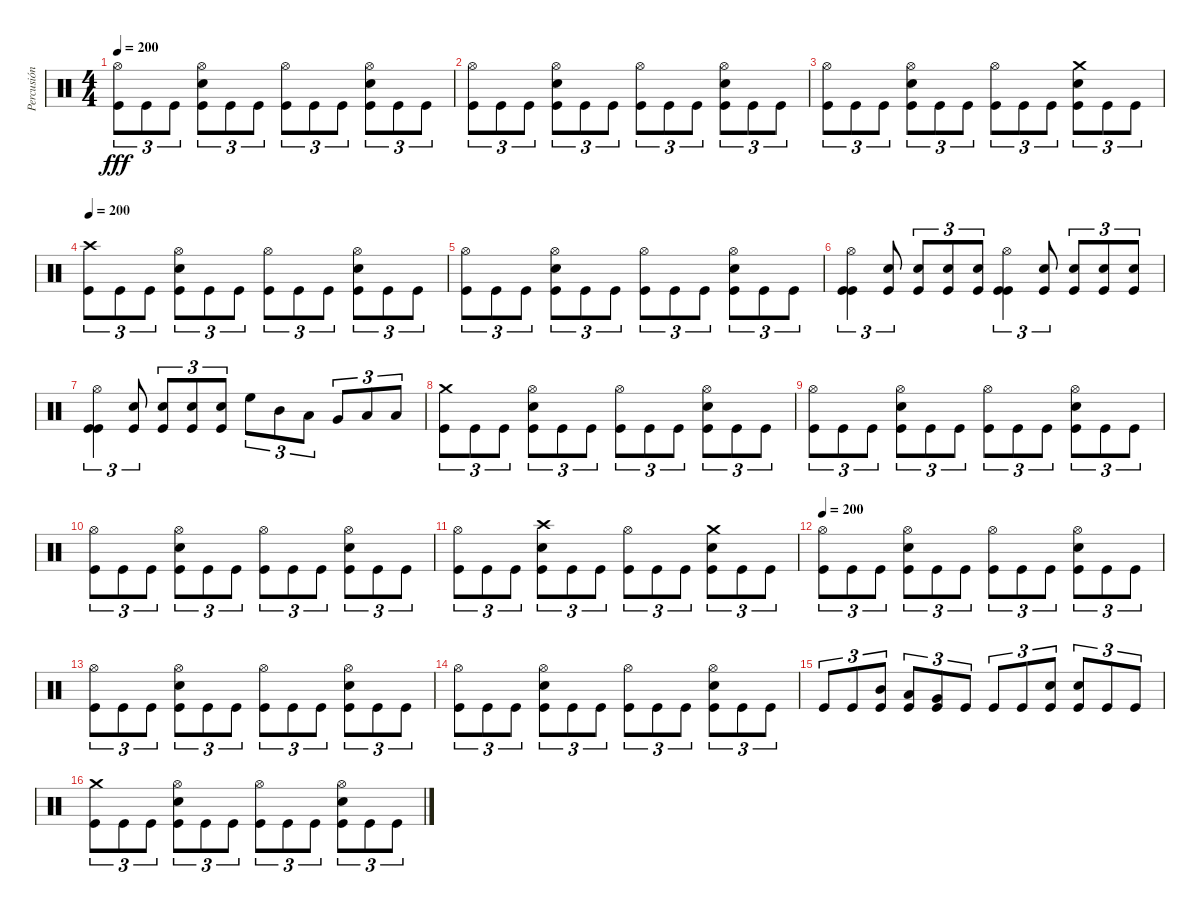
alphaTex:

\track ("Percusión" "Percusión") {instrument percussion}
\staff {score}
\articulation defaults
\ts (4 4)
\tempo 200
\clef neutral
\ks c
("Hi-Hat (open)" "Kick (hit)").8{tu (3 2) dy fff} "Kick (hit)".8{tu (3 2)} "Kick (hit)".8{tu (3 2)} ("Hi-Hat (open)" "Electric Snare (hit)" "Kick (hit)").8{tu (3 2)} "Kick (hit)".8{tu (3 2)} "Kick (hit)".8{tu (3 2)} ("Hi-Hat (open)" "Kick (hit)").8{tu (3 2)} "Kick (hit)".8{tu (3 2)} "Kick (hit)".8{tu (3 2)} ("Hi-Hat (open)" "Electric Snare (hit)" "Kick (hit)").8{tu (3 2)} "Kick (hit)".8{tu (3 2)} "Kick (hit)".8{tu (3 2)} |
("Hi-Hat (open)" "Kick (hit)").8{tu (3 2)} "Kick (hit)".8{tu (3 2)} "Kick (hit)".8{tu (3 2)} ("Hi-Hat (open)" "Electric Snare (hit)" "Kick (hit)").8{tu (3 2)} "Kick (hit)".8{tu (3 2)} "Kick (hit)".8{tu (3 2)} ("Hi-Hat (open)" "Kick (hit)").8{tu (3 2)} "Kick (hit)".8{tu (3 2)} "Kick (hit)".8{tu (3 2)} ("Hi-Hat (open)" "Electric Snare (hit)" "Kick (hit)").8{tu (3 2)} "Kick (hit)".8{tu (3 2)} "Kick (hit)".8{tu (3 2)} |
("Hi-Hat (open)" "Kick (hit)").8{tu (3 2)} "Kick (hit)".8{tu (3 2)} "Kick (hit)".8{tu (3 2)} ("Hi-Hat (open)" "Electric Snare (hit)" "Kick (hit)").8{tu (3 2)} "Kick (hit)".8{tu (3 2)} "Kick (hit)".8{tu (3 2)} ("Hi-Hat (open)" "Kick (hit)").8{tu (3 2)} "Kick (hit)".8{tu (3 2)} "Kick (hit)".8{tu (3 2)} ("Crash medium (hit)" "Electric Snare (hit)" "Kick (hit)").8{tu (3 2)} "Kick (hit)".8{tu (3 2)} "Kick (hit)".8{tu (3 2)} |
\tempo 200
("Crash high (hit)" "Kick (hit)").8{tu (3 2)} "Kick (hit)".8{tu (3 2)} "Kick (hit)".8{tu (3 2)} ("Hi-Hat (open)" "Electric Snare (hit)" "Kick (hit)").8{tu (3 2)} "Kick (hit)".8{tu (3 2)} "Kick (hit)".8{tu (3 2)} ("Hi-Hat (open)" "Kick (hit)").8{tu (3 2)} "Kick (hit)".8{tu (3 2)} "Kick (hit)".8{tu (3 2)} ("Hi-Hat (open)" "Electric Snare (hit)" "Kick (hit)").8{tu (3 2)} "Kick (hit)".8{tu (3 2)} "Kick (hit)".8{tu (3 2)} |
("Hi-Hat (open)" "Kick (hit)").8{tu (3 2)} "Kick (hit)".8{tu (3 2)} "Kick (hit)".8{tu (3 2)} ("Hi-Hat (open)" "Electric Snare (hit)" "Kick (hit)").8{tu (3 2)} "Kick (hit)".8{tu (3 2)} "Kick (hit)".8{tu (3 2)} ("Hi-Hat (open)" "Kick (hit)").8{tu (3 2)} "Kick (hit)".8{tu (3 2)} "Kick (hit)".8{tu (3 2)} ("Hi-Hat (open)" "Electric Snare (hit)" "Kick (hit)").8{tu (3 2)} "Kick (hit)".8{tu (3 2)} "Kick (hit)".8{tu (3 2)} |
("Hi-Hat (open)" "Kick (hit)" "Kick (hit)").4{tu (3 2)} ("Electric Snare (hit)" "Kick (hit)").8{tu (3 2)} ("Electric Snare (hit)" "Kick (hit)").8{tu (3 2)} ("Electric Snare (hit)" "Kick (hit)").8{tu (3 2)} ("Electric Snare (hit)" "Kick (hit)").8{tu (3 2)} ("Hi-Hat (open)" "Kick (hit)" "Kick (hit)").4{tu (3 2)} ("Electric Snare (hit)" "Kick (hit)").8{tu (3 2)} ("Electric Snare (hit)" "Kick (hit)").8{tu (3 2)} ("Electric Snare (hit)" "Kick (hit)").8{tu (3 2)} ("Electric Snare (hit)" "Kick (hit)").8{tu (3 2)} |
("Hi-Hat (open)" "Kick (hit)" "Kick (hit)").4{tu (3 2)} ("Electric Snare (hit)" "Kick (hit)").8{tu (3 2)} ("Electric Snare (hit)" "Kick (hit)").8{tu (3 2)} ("Electric Snare (hit)" "Kick (hit)").8{tu (3 2)} ("Electric Snare (hit)" "Kick (hit)").8{tu (3 2)} "High Floor Tom (hit)".8{tu (3 2)} "Mid Tom (hit)".8{tu (3 2)} "Low Tom (hit)".8{tu (3 2)} "Very Low Tom (hit)".8{tu (3 2)} "Low Floor Tom (hit)".8{tu (3 2)} "Low Floor Tom (hit)".8{tu (3 2)} |
("Crash medium (hit)" "Kick (hit)").8{tu (3 2)} "Kick (hit)".8{tu (3 2)} "Kick (hit)".8{tu (3 2)} ("Hi-Hat (open)" "Electric Snare (hit)" "Kick (hit)").8{tu (3 2)} "Kick (hit)".8{tu (3 2)} "Kick (hit)".8{tu (3 2)} ("Hi-Hat (open)" "Kick (hit)").8{tu (3 2)} "Kick (hit)".8{tu (3 2)} "Kick (hit)".8{tu (3 2)} ("Hi-Hat (open)" "Electric Snare (hit)" "Kick (hit)").8{tu (3 2)} "Kick (hit)".8{tu (3 2)} "Kick (hit)".8{tu (3 2)} |
("Hi-Hat (open)" "Kick (hit)").8{tu (3 2)} "Kick (hit)".8{tu (3 2)} "Kick (hit)".8{tu (3 2)} ("Hi-Hat (open)" "Electric Snare (hit)" "Kick (hit)").8{tu (3 2)} "Kick (hit)".8{tu (3 2)} "Kick (hit)".8{tu (3 2)} ("Hi-Hat (open)" "Kick (hit)").8{tu (3 2)} "Kick (hit)".8{tu (3 2)} "Kick (hit)".8{tu (3 2)} ("Hi-Hat (open)" "Electric Snare (hit)" "Kick (hit)").8{tu (3 2)} "Kick (hit)".8{tu (3 2)} "Kick (hit)".8{tu (3 2)} |
("Hi-Hat (open)" "Kick (hit)").8{tu (3 2)} "Kick (hit)".8{tu (3 2)} "Kick (hit)".8{tu (3 2)} ("Hi-Hat (open)" "Electric Snare (hit)" "Kick (hit)").8{tu (3 2)} "Kick (hit)".8{tu (3 2)} "Kick (hit)".8{tu (3 2)} ("Hi-Hat (open)" "Kick (hit)").8{tu (3 2)} "Kick (hit)".8{tu (3 2)} "Kick (hit)".8{tu (3 2)} ("Hi-Hat (open)" "Electric Snare (hit)" "Kick (hit)").8{tu (3 2)} "Kick (hit)".8{tu (3 2)} "Kick (hit)".8{tu (3 2)} |
("Hi-Hat (open)" "Kick (hit)").8{tu (3 2)} "Kick (hit)".8{tu (3 2)} "Kick (hit)".8{tu (3 2)} ("Crash high (hit)" "Electric Snare (hit)" "Kick (hit)").8{tu (3 2)} "Kick (hit)".8{tu (3 2)} "Kick (hit)".8{tu (3 2)} ("Hi-Hat (open)" "Kick (hit)").8{tu (3 2)} "Kick (hit)".8{tu (3 2)} "Kick (hit)".8{tu (3 2)} ("Crash medium (hit)" "Electric Snare (hit)" "Kick (hit)").8{tu (3 2)} "Kick (hit)".8{tu (3 2)} "Kick (hit)".8{tu (3 2)} |
\tempo 200
("Hi-Hat (open)" "Kick (hit)").8{tu (3 2)} "Kick (hit)".8{tu (3 2)} "Kick (hit)".8{tu (3 2)} ("Hi-Hat (open)" "Electric Snare (hit)" "Kick (hit)").8{tu (3 2)} "Kick (hit)".8{tu (3 2)} "Kick (hit)".8{tu (3 2)} ("Hi-Hat (open)" "Kick (hit)").8{tu (3 2)} "Kick (hit)".8{tu (3 2)} "Kick (hit)".8{tu (3 2)} ("Hi-Hat (open)" "Electric Snare (hit)" "Kick (hit)").8{tu (3 2)} "Kick (hit)".8{tu (3 2)} "Kick (hit)".8{tu (3 2)} |
("Hi-Hat (open)" "Kick (hit)").8{tu (3 2)} "Kick (hit)".8{tu (3 2)} "Kick (hit)".8{tu (3 2)} ("Hi-Hat (open)" "Electric Snare (hit)" "Kick (hit)").8{tu (3 2)} "Kick (hit)".8{tu (3 2)} "Kick (hit)".8{tu (3 2)} ("Hi-Hat (open)" "Kick (hit)").8{tu (3 2)} "Kick (hit)".8{tu (3 2)} "Kick (hit)".8{tu (3 2)} ("Hi-Hat (open)" "Electric Snare (hit)" "Kick (hit)").8{tu (3 2)} "Kick (hit)".8{tu (3 2)} "Kick (hit)".8{tu (3 2)} |
("Hi-Hat (open)" "Kick (hit)").8{tu (3 2)} "Kick (hit)".8{tu (3 2)} "Kick (hit)".8{tu (3 2)} ("Hi-Hat (open)" "Electric Snare (hit)" "Kick (hit)").8{tu (3 2)} "Kick (hit)".8{tu (3 2)} "Kick (hit)".8{tu (3 2)} ("Hi-Hat (open)" "Kick (hit)").8{tu (3 2)} "Kick (hit)".8{tu (3 2)} "Kick (hit)".8{tu (3 2)} ("Hi-Hat (open)" "Electric Snare (hit)" "Kick (hit)").8{tu (3 2)} "Kick (hit)".8{tu (3 2)} "Kick (hit)".8{tu (3 2)} |
"Kick (hit)".8{tu (3 2)} "Kick (hit)".8{tu (3 2)} ("Mid Tom (hit)" "Kick (hit)").8{tu (3 2)} ("Low Tom (hit)" "Kick (hit)").8{tu (3 2)} ("Very Low Tom (hit)" "Kick (hit)").8{tu (3 2)} "Kick (hit)".8{tu (3 2)} "Kick (hit)".8{tu (3 2)} "Kick (hit)".8{tu (3 2)} ("Electric Snare (hit)" "Kick (hit)").8{tu (3 2)} ("Electric Snare (hit)" "Kick (hit)").8{tu (3 2)} "Kick (hit)".8{tu (3 2)} "Kick (hit)".8{tu (3 2)} |
("Crash medium (hit)" "Kick (hit)").8{tu (3 2)} "Kick (hit)".8{tu (3 2)} "Kick (hit)".8{tu (3 2)} ("Hi-Hat (open)" "Electric Snare (hit)" "Kick (hit)").8{tu (3 2)} "Kick (hit)".8{tu (3 2)} "Kick (hit)".8{tu (3 2)} ("Hi-Hat (open)" "Kick (hit)").8{tu (3 2)} "Kick (hit)".8{tu (3 2)} "Kick (hit)".8{tu (3 2)} ("Hi-Hat (open)" "Electric Snare (hit)" "Kick (hit)").8{tu (3 2)} "Kick (hit)".8{tu (3 2)} "Kick (hit)".8{tu (3 2)}
